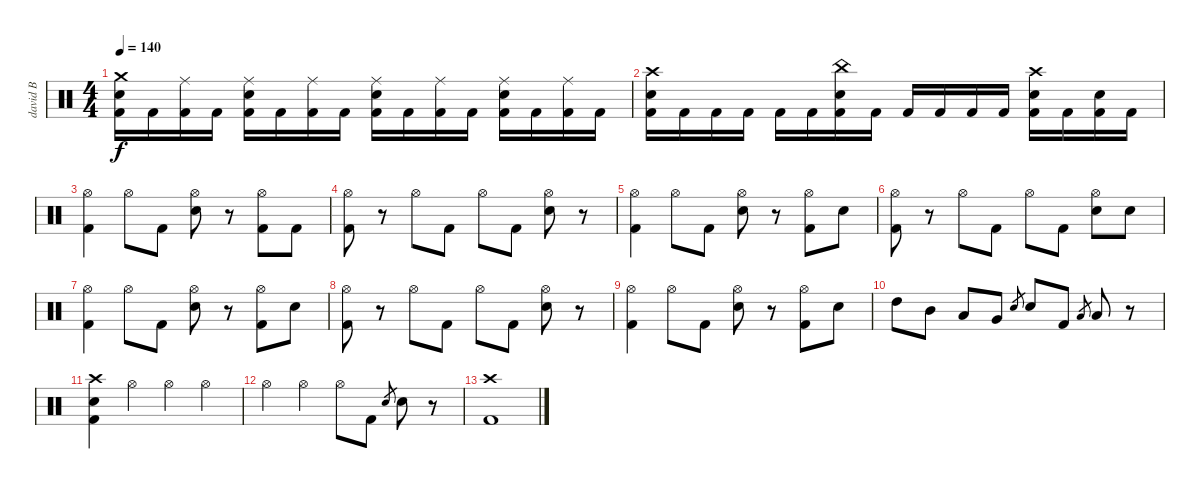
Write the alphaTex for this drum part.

\track ("david B" "david B") {instrument percussion}
\staff {score}
\articulation defaults
\ts (4 4)
\tempo 140
\clef neutral
\ks c
("Crash medium (hit)" "Electric Snare (hit)" "Kick (hit) 2").16{dy f} "Kick (hit) 2".16 ("Ride (middle)" "Kick (hit) 2").16 "Kick (hit) 2".16 ("Ride (middle)" "Electric Snare (hit)" "Kick (hit) 2").16 "Kick (hit) 2".16 ("Ride (middle)" "Kick (hit) 2").16 "Kick (hit) 2".16 ("Ride (middle)" "Electric Snare (hit)" "Kick (hit) 2").16 "Kick (hit) 2".16 ("Ride (middle)" "Kick (hit) 2").16 "Kick (hit) 2".16 ("Ride (middle)" "Electric Snare (hit)" "Kick (hit) 2").16 "Kick (hit) 2".16 ("Ride (middle)" "Kick (hit) 2").16 "Kick (hit) 2".16 |
("Crash high (hit)" "Electric Snare (hit)" "Kick (hit) 2").16 "Kick (hit) 2".16 "Kick (hit) 2".16 "Kick (hit) 2".16 "Kick (hit) 2".16 "Kick (hit) 2".16 ("China (hit)" "Electric Snare (hit)" "Kick (hit) 2").16 "Kick (hit) 2".16 "Kick (hit) 2".16 "Kick (hit) 2".16 "Kick (hit) 2".16 "Kick (hit) 2".16 ("Crash high (hit)" "Electric Snare (hit)" "Kick (hit) 2").16 "Kick (hit) 2".16 ("Electric Snare (hit)" "Kick (hit) 2").16 "Kick (hit) 2".16 |
("Hi-Hat (open)" "Kick (hit) 2").4 "Hi-Hat (open)".8 "Kick (hit) 2".8 ("Hi-Hat (open)" "Electric Snare (hit)").8 r.8 ("Hi-Hat (open)" "Kick (hit) 2").8 "Kick (hit) 2".8 |
("Hi-Hat (open)" "Kick (hit) 2").8 r.8 "Hi-Hat (open)".8 "Kick (hit) 2".8 "Hi-Hat (open)".8 "Kick (hit) 2".8 ("Hi-Hat (open)" "Electric Snare (hit)").8 r.8 |
("Hi-Hat (open)" "Kick (hit) 2").4 "Hi-Hat (open)".8 "Kick (hit) 2".8 ("Hi-Hat (open)" "Electric Snare (hit)").8 r.8 ("Hi-Hat (open)" "Kick (hit) 2").8 "Electric Snare (hit)".8 |
("Hi-Hat (open)" "Kick (hit) 2").8 r.8 "Hi-Hat (open)".8 "Kick (hit) 2".8 "Hi-Hat (open)".8 "Kick (hit) 2".8 ("Hi-Hat (open)" "Electric Snare (hit)").8 "Electric Snare (hit)".8 |
("Hi-Hat (open)" "Kick (hit) 2").4 "Hi-Hat (open)".8 "Kick (hit) 2".8 ("Hi-Hat (open)" "Electric Snare (hit)").8 r.8 ("Hi-Hat (open)" "Kick (hit) 2").8 "Electric Snare (hit)".8 |
("Hi-Hat (open)" "Kick (hit) 2").8 r.8 "Hi-Hat (open)".8 "Kick (hit) 2".8 "Hi-Hat (open)".8 "Kick (hit) 2".8 ("Hi-Hat (open)" "Electric Snare (hit)").8 r.8 |
("Hi-Hat (open)" "Kick (hit) 2").4 "Hi-Hat (open)".8 "Kick (hit) 2".8 ("Hi-Hat (open)" "Electric Snare (hit)").8 r.8 ("Hi-Hat (open)" "Kick (hit) 2").8 "Electric Snare (hit)".8 |
"High Tom (hit)".8 "Mid Tom (hit)".8 "Low Tom (hit)".8 "Very Low Tom (hit)".8 "Electric Snare (hit)".8{gr} "Electric Snare (hit)".8 "Kick (hit) 2".8 "Low Tom (hit)".8{gr} "Low Tom (hit)".8 r.8 |
("Crash high (hit)" "Electric Snare (hit)" "Kick (hit) 2").4 "Hi-Hat (open)".4 "Hi-Hat (open)".4 "Hi-Hat (open)".4 |
"Hi-Hat (open)".4 "Hi-Hat (open)".4 "Hi-Hat (open)".8 "Kick (hit) 2".8 "Electric Snare (hit)".8{gr} "Electric Snare (hit)".8 r.8 |
("Crash high (hit)" "Kick (hit) 2").1
